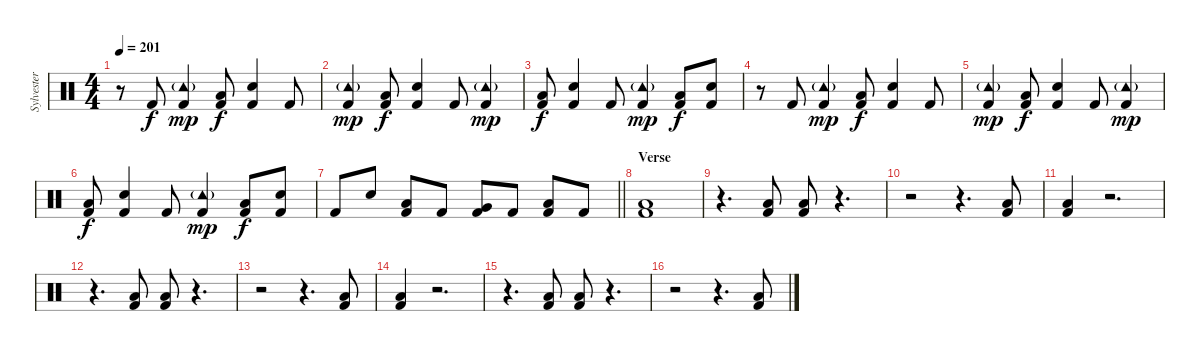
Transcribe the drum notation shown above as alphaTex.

\track ("Sylvester Schlegel" "Sylvester ") {instrument percussion}
\staff {score}
\articulation defaults
\ts (4 4)
\tempo 201
\clef neutral
\ks c
r.8{dy f} "Kick (hit) 2".8 ("Tambourine (hit)"{g} "Kick (hit) 2").4{dy mp} ("Low Floor Tom (hit)" "Kick (hit) 2").8{dy f} ("Snare (hit) 2" "Kick (hit) 2").4 "Kick (hit) 2".8 |
("Tambourine (hit)"{g} "Kick (hit) 2").4{dy mp} ("Low Floor Tom (hit)" "Kick (hit) 2").8{dy f} ("Snare (hit) 2" "Kick (hit) 2").4 "Kick (hit) 2".8 ("Tambourine (hit)"{g} "Kick (hit) 2").4{dy mp} |
("Low Floor Tom (hit)" "Kick (hit) 2").8{dy f} ("Snare (hit) 2" "Kick (hit) 2").4 "Kick (hit) 2".8 ("Tambourine (hit)"{g} "Kick (hit) 2").4{dy mp} ("Low Floor Tom (hit)" "Kick (hit) 2").8{dy f} ("Snare (hit) 2" "Kick (hit) 2").8 |
r.8 "Kick (hit) 2".8 ("Tambourine (hit)"{g} "Kick (hit) 2").4{dy mp} ("Low Floor Tom (hit)" "Kick (hit) 2").8{dy f} ("Snare (hit) 2" "Kick (hit) 2").4 "Kick (hit) 2".8 |
("Tambourine (hit)"{g} "Kick (hit) 2").4{dy mp} ("Low Floor Tom (hit)" "Kick (hit) 2").8{dy f} ("Snare (hit) 2" "Kick (hit) 2").4 "Kick (hit) 2".8 ("Tambourine (hit)"{g} "Kick (hit) 2").4{dy mp} |
("Low Floor Tom (hit)" "Kick (hit) 2").8{dy f} ("Snare (hit) 2" "Kick (hit) 2").4 "Kick (hit) 2".8 ("Tambourine (hit)"{g} "Kick (hit) 2").4{dy mp} ("Low Floor Tom (hit)" "Kick (hit) 2").8{dy f} ("Snare (hit) 2" "Kick (hit) 2").8 |
\barLineRight lightlight "Kick (hit) 2".8 "Snare (hit) 2".8
("Low Tom (hit)" "Kick (hit) 2").8 "Kick (hit) 2".8 ("Very Low Tom (hit)" "Kick (hit) 2").8 "Kick (hit) 2".8 ("Low Floor Tom (hit)" "Kick (hit) 2").8 "Kick (hit) 2".8 |
\section ("" "Verse")
("Low Tom (hit)" "Kick (hit) 2").1 |
r.4{d} ("Low Tom (hit)" "Kick (hit) 2").8 ("Low Tom (hit)" "Kick (hit) 2").8 r.4{d} |
r.2 r.4{d} ("Low Tom (hit)" "Kick (hit) 2").8 |
("Low Tom (hit)" "Kick (hit) 2").4 r.2{d} |
r.4{d} ("Low Tom (hit)" "Kick (hit) 2").8 ("Low Tom (hit)" "Kick (hit) 2").8 r.4{d} |
r.2 r.4{d} ("Low Tom (hit)" "Kick (hit) 2").8 |
("Low Tom (hit)" "Kick (hit) 2").4 r.2{d} |
r.4{d} ("Low Tom (hit)" "Kick (hit) 2").8 ("Low Tom (hit)" "Kick (hit) 2").8 r.4{d} |
r.2 r.4{d} ("Low Tom (hit)" "Kick (hit) 2").8
